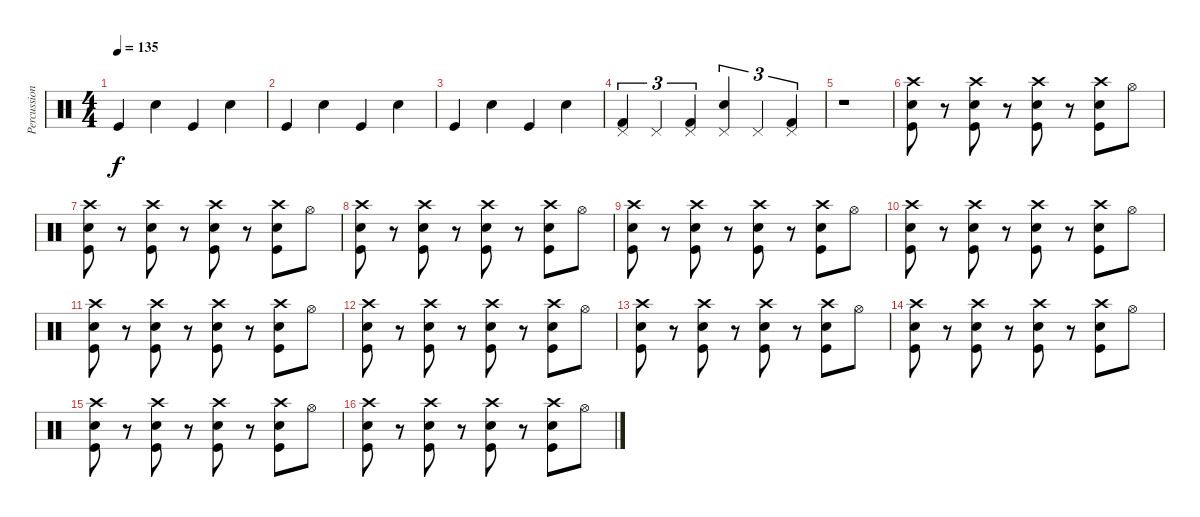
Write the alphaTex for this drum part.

\track ("Percussion" "Percussion") {instrument percussion}
\staff {score}
\articulation defaults
\ts (4 4)
\tempo 135
\clef neutral
\ks c "Kick (hit)".4{dy f} "Snare (hit) 2".4 "Kick (hit)".4 "Snare (hit) 2".4
|
"Kick (hit)".4 "Snare (hit) 2".4 "Kick (hit)".4 "Snare (hit) 2".4 |
"Kick (hit)".4 "Snare (hit) 2".4 "Kick (hit)".4 "Snare (hit) 2".4 |
("Pedal Hi-Hat (hit)" "Kick (hit) 2").4{tu (3 2)} "Pedal Hi-Hat (hit)".4{tu (3 2)} ("Pedal Hi-Hat (hit)" "Kick (hit) 2").4{tu (3 2)} ("Pedal Hi-Hat (hit)" "Snare (hit) 2").4{tu (3 2)} "Pedal Hi-Hat (hit)".4{tu (3 2)} ("Pedal Hi-Hat (hit)" "Kick (hit) 2").4{tu (3 2)} |
r.1 |
("Crash high (hit)" "Snare (hit) 2" "Kick (hit)").8 r.8 ("Crash high (hit)" "Snare (hit) 2" "Kick (hit)").8 r.8 ("Crash high (hit)" "Snare (hit) 2" "Kick (hit)").8 r.8 ("Crash high (hit)" "Snare (hit) 2" "Kick (hit)").8 "Hi-Hat (open)".8 |
("Crash high (hit)" "Snare (hit) 2" "Kick (hit)").8 r.8 ("Crash high (hit)" "Snare (hit) 2" "Kick (hit)").8 r.8 ("Crash high (hit)" "Snare (hit) 2" "Kick (hit)").8 r.8 ("Crash high (hit)" "Snare (hit) 2" "Kick (hit)").8 "Hi-Hat (open)".8 |
("Crash high (hit)" "Snare (hit) 2" "Kick (hit)").8 r.8 ("Crash high (hit)" "Snare (hit) 2" "Kick (hit)").8 r.8 ("Crash high (hit)" "Snare (hit) 2" "Kick (hit)").8 r.8 ("Crash high (hit)" "Snare (hit) 2" "Kick (hit)").8 "Hi-Hat (open)".8 |
("Crash high (hit)" "Snare (hit) 2" "Kick (hit)").8 r.8 ("Crash high (hit)" "Snare (hit) 2" "Kick (hit)").8 r.8 ("Crash high (hit)" "Snare (hit) 2" "Kick (hit)").8 r.8 ("Crash high (hit)" "Snare (hit) 2" "Kick (hit)").8 "Hi-Hat (open)".8 |
("Crash high (hit)" "Snare (hit) 2" "Kick (hit)").8 r.8 ("Crash high (hit)" "Snare (hit) 2" "Kick (hit)").8 r.8 ("Crash high (hit)" "Snare (hit) 2" "Kick (hit)").8 r.8 ("Crash high (hit)" "Snare (hit) 2" "Kick (hit)").8 "Hi-Hat (open)".8 |
("Crash high (hit)" "Snare (hit) 2" "Kick (hit)").8 r.8 ("Crash high (hit)" "Snare (hit) 2" "Kick (hit)").8 r.8 ("Crash high (hit)" "Snare (hit) 2" "Kick (hit)").8 r.8 ("Crash high (hit)" "Snare (hit) 2" "Kick (hit)").8 "Hi-Hat (open)".8 |
("Crash high (hit)" "Snare (hit) 2" "Kick (hit)").8 r.8 ("Crash high (hit)" "Snare (hit) 2" "Kick (hit)").8 r.8 ("Crash high (hit)" "Snare (hit) 2" "Kick (hit)").8 r.8 ("Crash high (hit)" "Snare (hit) 2" "Kick (hit)").8 "Hi-Hat (open)".8 |
("Crash high (hit)" "Snare (hit) 2" "Kick (hit)").8 r.8 ("Crash high (hit)" "Snare (hit) 2" "Kick (hit)").8 r.8 ("Crash high (hit)" "Snare (hit) 2" "Kick (hit)").8 r.8 ("Crash high (hit)" "Snare (hit) 2" "Kick (hit)").8 "Hi-Hat (open)".8 |
("Crash high (hit)" "Snare (hit) 2" "Kick (hit)").8 r.8 ("Crash high (hit)" "Snare (hit) 2" "Kick (hit)").8 r.8 ("Crash high (hit)" "Snare (hit) 2" "Kick (hit)").8 r.8 ("Crash high (hit)" "Snare (hit) 2" "Kick (hit)").8 "Hi-Hat (open)".8 |
("Crash high (hit)" "Snare (hit) 2" "Kick (hit)").8 r.8 ("Crash high (hit)" "Snare (hit) 2" "Kick (hit)").8 r.8 ("Crash high (hit)" "Snare (hit) 2" "Kick (hit)").8 r.8 ("Crash high (hit)" "Snare (hit) 2" "Kick (hit)").8 "Hi-Hat (open)".8 |
("Crash high (hit)" "Snare (hit) 2" "Kick (hit)").8 r.8 ("Crash high (hit)" "Snare (hit) 2" "Kick (hit)").8 r.8 ("Crash high (hit)" "Snare (hit) 2" "Kick (hit)").8 r.8 ("Crash high (hit)" "Snare (hit) 2" "Kick (hit)").8 "Hi-Hat (open)".8
